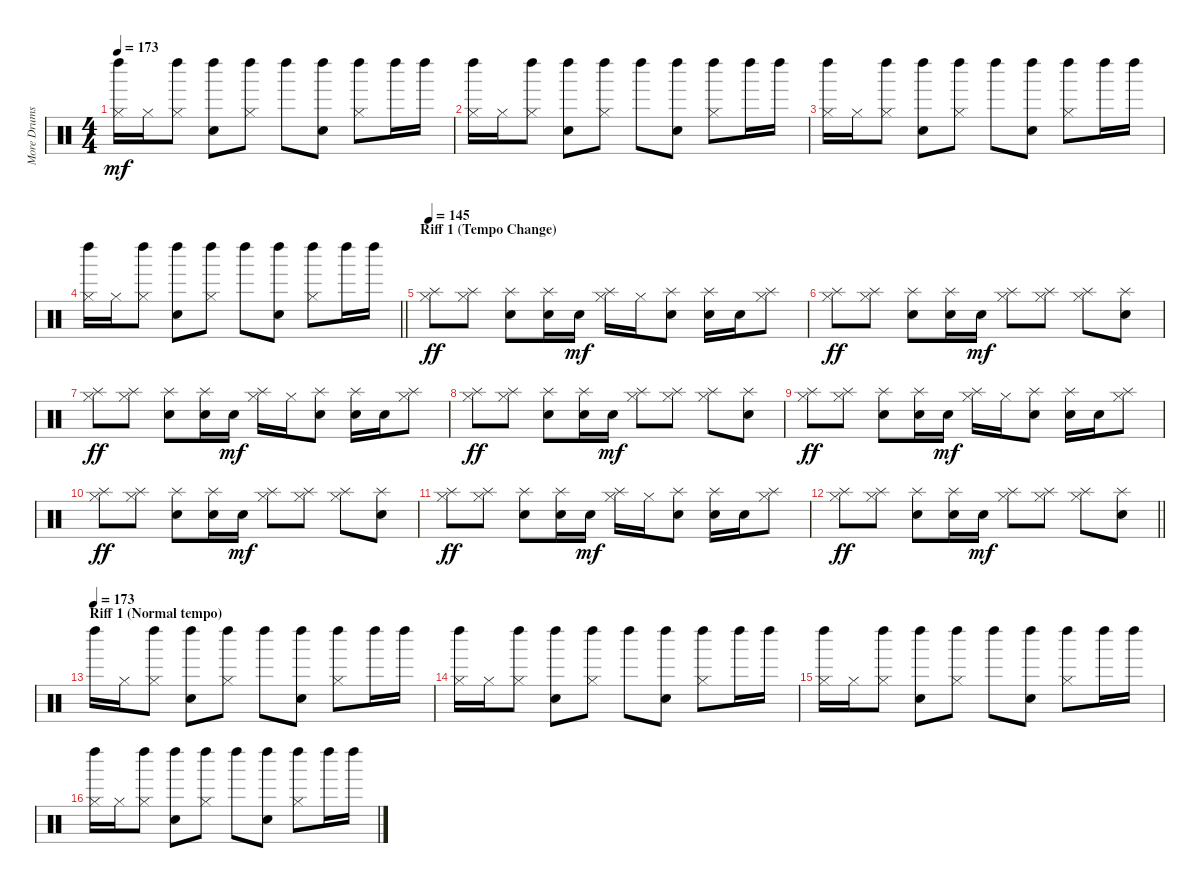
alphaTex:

\track ("More Drums" "More Drums") {instrument percussion}
\staff {score}
\articulation defaults
\ts (4 4)
\tempo 173
\clef neutral
\ks c
("Hi-Hat (closed)" "Left Maraca (hit)").16{dy mf} "Hi-Hat (closed)".16 ("Hi-Hat (closed)" "Left Maraca (hit)").8 ("Snare (hit) 2" "Left Maraca (hit)").8 ("Hi-Hat (closed)" "Left Maraca (hit)").8 "Left Maraca (hit)".8 ("Snare (hit) 2" "Left Maraca (hit)").8 ("Hi-Hat (closed)" "Left Maraca (hit)").8 "Left Maraca (hit)".16 "Left Maraca (hit)".16 |
("Hi-Hat (closed)" "Left Maraca (hit)").16 "Hi-Hat (closed)".16 ("Hi-Hat (closed)" "Left Maraca (hit)").8 ("Snare (hit) 2" "Left Maraca (hit)").8 ("Hi-Hat (closed)" "Left Maraca (hit)").8 "Left Maraca (hit)".8 ("Snare (hit) 2" "Left Maraca (hit)").8 ("Hi-Hat (closed)" "Left Maraca (hit)").8 "Left Maraca (hit)".16 "Left Maraca (hit)".16 |
("Hi-Hat (closed)" "Left Maraca (hit)").16 "Hi-Hat (closed)".16 ("Hi-Hat (closed)" "Left Maraca (hit)").8 ("Snare (hit) 2" "Left Maraca (hit)").8 ("Hi-Hat (closed)" "Left Maraca (hit)").8 "Left Maraca (hit)".8 ("Snare (hit) 2" "Left Maraca (hit)").8 ("Hi-Hat (closed)" "Left Maraca (hit)").8 "Left Maraca (hit)".16 "Left Maraca (hit)".16 |
\barLineRight lightlight
("Hi-Hat (closed)" "Left Maraca (hit)").16 "Hi-Hat (closed)".16 ("Hi-Hat (closed)" "Left Maraca (hit)").8 ("Snare (hit) 2" "Left Maraca (hit)").8 ("Hi-Hat (closed)" "Left Maraca (hit)").8 "Left Maraca (hit)".8 ("Snare (hit) 2" "Left Maraca (hit)").8 ("Hi-Hat (closed)" "Left Maraca (hit)").8 "Left Maraca (hit)".16 "Left Maraca (hit)".16 |
\section ("" "Riff 1 (Tempo Change)")
\tempo 145
("Hi-Hat (closed)" "Splash (hit)").8{dy ff} ("Hi-Hat (closed)" "Splash (hit)").8 ("Electric Snare (hit)" "Splash (hit)").8 ("Snare (hit) 2" "Splash (hit)").16 "Snare (hit) 2".16{dy mf} ("Hi-Hat (closed)" "Splash (hit)").16 "Hi-Hat (closed)".16 ("Electric Snare (hit)" "Splash (hit)").8 ("Electric Snare (hit)" "Splash (hit)").16 "Snare (hit) 2".16 ("Hi-Hat (closed)" "Splash (hit)").8 |
("Hi-Hat (closed)" "Splash (hit)").8{dy ff} ("Hi-Hat (closed)" "Splash (hit)").8 ("Electric Snare (hit)" "Splash (hit)").8 ("Snare (hit) 2" "Splash (hit)").16 "Snare (hit) 2".16{dy mf} ("Hi-Hat (closed)" "Splash (hit)").8 ("Hi-Hat (closed)" "Splash (hit)").8 ("Hi-Hat (closed)" "Splash (hit)").8 ("Snare (hit) 2" "Splash (hit)").8 |
("Hi-Hat (closed)" "Splash (hit)").8{dy ff} ("Hi-Hat (closed)" "Splash (hit)").8 ("Electric Snare (hit)" "Splash (hit)").8 ("Snare (hit) 2" "Splash (hit)").16 "Snare (hit) 2".16{dy mf} ("Hi-Hat (closed)" "Splash (hit)").16 "Hi-Hat (closed)".16 ("Electric Snare (hit)" "Splash (hit)").8 ("Electric Snare (hit)" "Splash (hit)").16 "Snare (hit) 2".16 ("Hi-Hat (closed)" "Splash (hit)").8 |
("Hi-Hat (closed)" "Splash (hit)").8{dy ff} ("Hi-Hat (closed)" "Splash (hit)").8 ("Electric Snare (hit)" "Splash (hit)").8 ("Snare (hit) 2" "Splash (hit)").16 "Snare (hit) 2".16{dy mf} ("Hi-Hat (closed)" "Splash (hit)").8 ("Hi-Hat (closed)" "Splash (hit)").8 ("Hi-Hat (closed)" "Splash (hit)").8 ("Snare (hit) 2" "Splash (hit)").8 |
("Hi-Hat (closed)" "Splash (hit)").8{dy ff} ("Hi-Hat (closed)" "Splash (hit)").8 ("Electric Snare (hit)" "Splash (hit)").8 ("Snare (hit) 2" "Splash (hit)").16 "Snare (hit) 2".16{dy mf} ("Hi-Hat (closed)" "Splash (hit)").16 "Hi-Hat (closed)".16 ("Electric Snare (hit)" "Splash (hit)").8 ("Electric Snare (hit)" "Splash (hit)").16 "Snare (hit) 2".16 ("Hi-Hat (closed)" "Splash (hit)").8 |
("Hi-Hat (closed)" "Splash (hit)").8{dy ff} ("Hi-Hat (closed)" "Splash (hit)").8 ("Electric Snare (hit)" "Splash (hit)").8 ("Snare (hit) 2" "Splash (hit)").16 "Snare (hit) 2".16{dy mf} ("Hi-Hat (closed)" "Splash (hit)").8 ("Hi-Hat (closed)" "Splash (hit)").8 ("Hi-Hat (closed)" "Splash (hit)").8 ("Snare (hit) 2" "Splash (hit)").8 |
("Hi-Hat (closed)" "Splash (hit)").8{dy ff} ("Hi-Hat (closed)" "Splash (hit)").8 ("Electric Snare (hit)" "Splash (hit)").8 ("Snare (hit) 2" "Splash (hit)").16 "Snare (hit) 2".16{dy mf} ("Hi-Hat (closed)" "Splash (hit)").16 "Hi-Hat (closed)".16 ("Electric Snare (hit)" "Splash (hit)").8 ("Electric Snare (hit)" "Splash (hit)").16 "Snare (hit) 2".16 ("Hi-Hat (closed)" "Splash (hit)").8 |
\barLineRight lightlight
("Hi-Hat (closed)" "Splash (hit)").8{dy ff} ("Hi-Hat (closed)" "Splash (hit)").8 ("Electric Snare (hit)" "Splash (hit)").8 ("Snare (hit) 2" "Splash (hit)").16 "Snare (hit) 2".16{dy mf} ("Hi-Hat (closed)" "Splash (hit)").8 ("Hi-Hat (closed)" "Splash (hit)").8 ("Hi-Hat (closed)" "Splash (hit)").8 ("Snare (hit) 2" "Splash (hit)").8 |
\section ("" "Riff 1 (Normal tempo)")
\tempo (173)
"Left Maraca (hit)".16 "Hi-Hat (closed)".16 ("Hi-Hat (closed)" "Left Maraca (hit)").8 ("Snare (hit) 2" "Left Maraca (hit)").8 ("Hi-Hat (closed)" "Left Maraca (hit)").8 "Left Maraca (hit)".8 ("Snare (hit) 2" "Left Maraca (hit)").8 ("Hi-Hat (closed)" "Left Maraca (hit)").8 "Left Maraca (hit)".16 "Left Maraca (hit)".16 |
("Hi-Hat (closed)" "Left Maraca (hit)").16 "Hi-Hat (closed)".16 ("Hi-Hat (closed)" "Left Maraca (hit)").8 ("Snare (hit) 2" "Left Maraca (hit)").8 ("Hi-Hat (closed)" "Left Maraca (hit)").8 "Left Maraca (hit)".8 ("Snare (hit) 2" "Left Maraca (hit)").8 ("Hi-Hat (closed)" "Left Maraca (hit)").8 "Left Maraca (hit)".16 "Left Maraca (hit)".16 |
("Hi-Hat (closed)" "Left Maraca (hit)").16 "Hi-Hat (closed)".16 ("Hi-Hat (closed)" "Left Maraca (hit)").8 ("Snare (hit) 2" "Left Maraca (hit)").8 ("Hi-Hat (closed)" "Left Maraca (hit)").8 "Left Maraca (hit)".8 ("Snare (hit) 2" "Left Maraca (hit)").8 ("Hi-Hat (closed)" "Left Maraca (hit)").8 "Left Maraca (hit)".16 "Left Maraca (hit)".16 |
("Hi-Hat (closed)" "Left Maraca (hit)").16 "Hi-Hat (closed)".16 ("Hi-Hat (closed)" "Left Maraca (hit)").8 ("Snare (hit) 2" "Left Maraca (hit)").8 ("Hi-Hat (closed)" "Left Maraca (hit)").8 "Left Maraca (hit)".8 ("Snare (hit) 2" "Left Maraca (hit)").8 ("Hi-Hat (closed)" "Left Maraca (hit)").8 "Left Maraca (hit)".16 "Left Maraca (hit)".16
